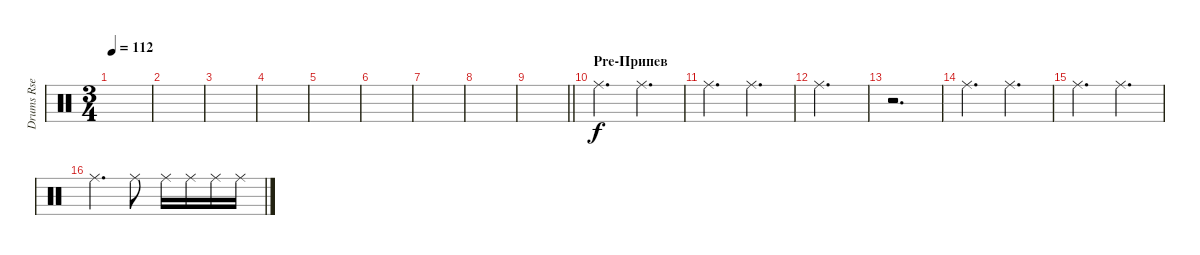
\track ("Drums Rse" "Drums Rse") {instrument percussion}
\staff {score}
\articulation defaults
\ts (3 4)
\tempo 112
\clef neutral
\ks c
|
|
|
|
|
|
|
|
\barLineRight lightlight
|
\section ("" "Pre-Припев")
"Ride (middle)".4{d} "Ride (middle)".4{d} |
"Ride (middle)".4{d} "Ride (middle)".4{d} |
"Ride (middle)".2{d} |
r.2{d} |
"Ride (middle)".4{d} "Ride (middle)".4{d} |
"Ride (middle)".4{d} "Ride (middle)".4{d} |
"Ride (middle)".4{d} "Ride (middle)".8 "Ride (middle)".16 "Ride (middle)".16 "Ride (middle)".16 "Ride (middle)".16
